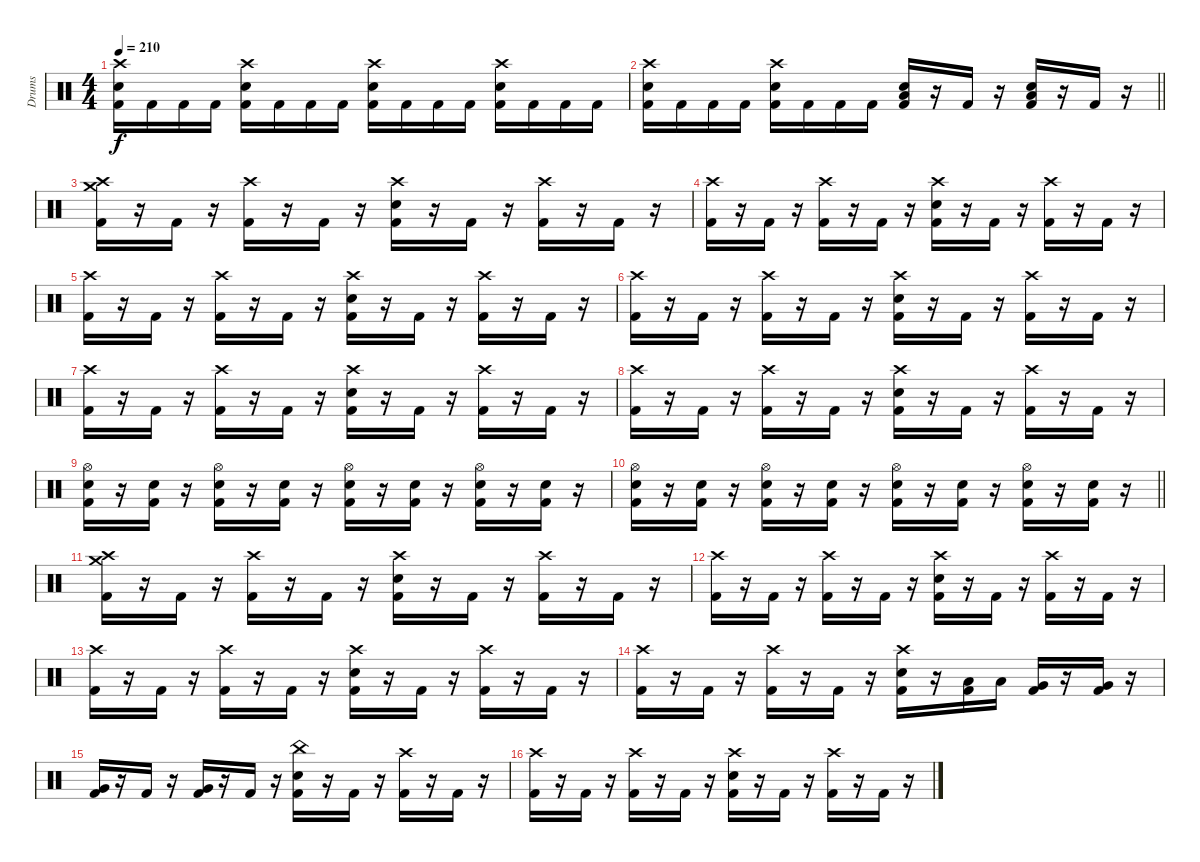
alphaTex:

\track ("Drums" "Drums") {instrument percussion}
\staff {score}
\articulation defaults
\ts (4 4)
\tempo 210
\clef neutral
\ks c
("Crash high (hit)" "Electric Snare (hit)" "Kick (hit) 2").16{dy f} "Kick (hit) 2".16 "Kick (hit) 2".16 "Kick (hit) 2".16 ("Crash high (hit)" "Electric Snare (hit)" "Kick (hit) 2").16 "Kick (hit) 2".16 "Kick (hit) 2".16 "Kick (hit) 2".16 ("Crash high (hit)" "Electric Snare (hit)" "Kick (hit) 2").16 "Kick (hit) 2".16 "Kick (hit) 2".16 "Kick (hit) 2".16 ("Crash high (hit)" "Electric Snare (hit)" "Kick (hit) 2").16 "Kick (hit) 2".16 "Kick (hit) 2".16 "Kick (hit) 2".16 |
\barLineRight lightlight
("Crash high (hit)" "Electric Snare (hit)" "Kick (hit) 2").16 "Kick (hit) 2".16 "Kick (hit) 2".16 "Kick (hit) 2".16 ("Crash high (hit)" "Electric Snare (hit)" "Kick (hit) 2").16 "Kick (hit) 2".16 "Kick (hit) 2".16 "Kick (hit) 2".16 ("Low Floor Tom (hit)" "Electric Snare (hit)" "Kick (hit) 2").16 r.16 "Kick (hit) 2".16 r.16 ("Low Floor Tom (hit)" "Electric Snare (hit)" "Kick (hit) 2").16 r.16 "Kick (hit) 2".16 r.16 |
("Crash high (hit)" "Crash medium (hit)" "Kick (hit) 2").16 r.16 "Kick (hit) 2".16 r.16 ("Crash high (hit)" "Kick (hit) 2").16 r.16 "Kick (hit) 2".16 r.16 ("Crash high (hit)" "Electric Snare (hit)" "Kick (hit) 2").16 r.16 "Kick (hit) 2".16 r.16 ("Crash high (hit)" "Kick (hit) 2").16 r.16 "Kick (hit) 2".16 r.16 |
("Crash high (hit)" "Kick (hit) 2").16 r.16 "Kick (hit) 2".16 r.16 ("Crash high (hit)" "Kick (hit) 2").16 r.16 "Kick (hit) 2".16 r.16 ("Crash high (hit)" "Electric Snare (hit)" "Kick (hit) 2").16 r.16 "Kick (hit) 2".16 r.16 ("Crash high (hit)" "Kick (hit) 2").16 r.16 "Kick (hit) 2".16 r.16 |
("Crash high (hit)" "Kick (hit) 2").16 r.16 "Kick (hit) 2".16 r.16 ("Crash high (hit)" "Kick (hit) 2").16 r.16 "Kick (hit) 2".16 r.16 ("Crash high (hit)" "Electric Snare (hit)" "Kick (hit) 2").16 r.16 "Kick (hit) 2".16 r.16 ("Crash high (hit)" "Kick (hit) 2").16 r.16 "Kick (hit) 2".16 r.16 |
("Crash high (hit)" "Kick (hit) 2").16 r.16 "Kick (hit) 2".16 r.16 ("Crash high (hit)" "Kick (hit) 2").16 r.16 "Kick (hit) 2".16 r.16 ("Crash high (hit)" "Electric Snare (hit)" "Kick (hit) 2").16 r.16 "Kick (hit) 2".16 r.16 ("Crash high (hit)" "Kick (hit) 2").16 r.16 "Kick (hit) 2".16 r.16 |
("Crash high (hit)" "Kick (hit) 2").16 r.16 "Kick (hit) 2".16 r.16 ("Crash high (hit)" "Kick (hit) 2").16 r.16 "Kick (hit) 2".16 r.16 ("Crash high (hit)" "Electric Snare (hit)" "Kick (hit) 2").16 r.16 "Kick (hit) 2".16 r.16 ("Crash high (hit)" "Kick (hit) 2").16 r.16 "Kick (hit) 2".16 r.16 |
("Crash high (hit)" "Kick (hit) 2").16 r.16 "Kick (hit) 2".16 r.16 ("Crash high (hit)" "Kick (hit) 2").16 r.16 "Kick (hit) 2".16 r.16 ("Crash high (hit)" "Electric Snare (hit)" "Kick (hit) 2").16 r.16 "Kick (hit) 2".16 r.16 ("Crash high (hit)" "Kick (hit) 2").16 r.16 "Kick (hit) 2".16 r.16 |
("Hi-Hat (open)" "Electric Snare (hit)" "Kick (hit) 2").16 r.16 ("Electric Snare (hit)" "Kick (hit) 2").16 r.16 ("Hi-Hat (open)" "Electric Snare (hit)" "Kick (hit) 2").16 r.16 ("Electric Snare (hit)" "Kick (hit) 2").16 r.16 ("Hi-Hat (open)" "Electric Snare (hit)" "Kick (hit) 2").16 r.16 ("Electric Snare (hit)" "Kick (hit) 2").16 r.16 ("Hi-Hat (open)" "Electric Snare (hit)" "Kick (hit) 2").16 r.16 ("Electric Snare (hit)" "Kick (hit) 2").16 r.16 |
\barLineRight lightlight
("Hi-Hat (open)" "Electric Snare (hit)" "Kick (hit) 2").16 r.16 ("Electric Snare (hit)" "Kick (hit) 2").16 r.16 ("Hi-Hat (open)" "Electric Snare (hit)" "Kick (hit) 2").16 r.16 ("Electric Snare (hit)" "Kick (hit) 2").16 r.16 ("Hi-Hat (open)" "Electric Snare (hit)" "Kick (hit) 2").16 r.16 ("Electric Snare (hit)" "Kick (hit) 2").16 r.16 ("Hi-Hat (open)" "Electric Snare (hit)" "Kick (hit) 2").16 r.16 ("Electric Snare (hit)" "Kick (hit) 2").16 r.16 |
("Crash high (hit)" "Crash medium (hit)" "Kick (hit) 2").16 r.16 "Kick (hit) 2".16 r.16 ("Crash high (hit)" "Kick (hit) 2").16 r.16 "Kick (hit) 2".16 r.16 ("Crash high (hit)" "Electric Snare (hit)" "Kick (hit) 2").16 r.16 "Kick (hit) 2".16 r.16 ("Crash high (hit)" "Kick (hit) 2").16 r.16 "Kick (hit) 2".16 r.16 |
("Crash high (hit)" "Kick (hit) 2").16 r.16 "Kick (hit) 2".16 r.16 ("Crash high (hit)" "Kick (hit) 2").16 r.16 "Kick (hit) 2".16 r.16 ("Crash high (hit)" "Electric Snare (hit)" "Kick (hit) 2").16 r.16 "Kick (hit) 2".16 r.16 ("Crash high (hit)" "Kick (hit) 2").16 r.16 "Kick (hit) 2".16 r.16 |
("Crash high (hit)" "Kick (hit) 2").16 r.16 "Kick (hit) 2".16 r.16 ("Crash high (hit)" "Kick (hit) 2").16 r.16 "Kick (hit) 2".16 r.16 ("Crash high (hit)" "Electric Snare (hit)" "Kick (hit) 2").16 r.16 "Kick (hit) 2".16 r.16 ("Crash high (hit)" "Kick (hit) 2").16 r.16 "Kick (hit) 2".16 r.16 |
("Crash high (hit)" "Kick (hit) 2").16 r.16 "Kick (hit) 2".16 r.16 ("Crash high (hit)" "Kick (hit) 2").16 r.16 "Kick (hit) 2".16 r.16 ("Crash high (hit)" "Electric Snare (hit)" "Kick (hit) 2").16 r.16 ("Low Tom (hit)" "Kick (hit) 2").16 "Low Tom (hit)".16 ("Very Low Tom (hit)" "Kick (hit) 2").16 r.16 ("Very Low Tom (hit)" "Kick (hit) 2").16 r.16 |
("Very Low Tom (hit)" "Kick (hit) 2").16 r.16 "Kick (hit) 2".16 r.16 ("Very Low Tom (hit)" "Kick (hit) 2").16 r.16 "Kick (hit) 2".16 r.16 ("China (hit)" "Electric Snare (hit)" "Kick (hit) 2").16 r.16 "Kick (hit) 2".16 r.16 ("Crash high (hit)" "Kick (hit) 2").16 r.16 "Kick (hit) 2".16 r.16 |
("Crash high (hit)" "Kick (hit) 2").16 r.16 "Kick (hit) 2".16 r.16 ("Crash high (hit)" "Kick (hit) 2").16 r.16 "Kick (hit) 2".16 r.16 ("Crash high (hit)" "Electric Snare (hit)" "Kick (hit) 2").16 r.16 "Kick (hit) 2".16 r.16 ("Crash high (hit)" "Kick (hit) 2").16 r.16 "Kick (hit) 2".16 r.16
